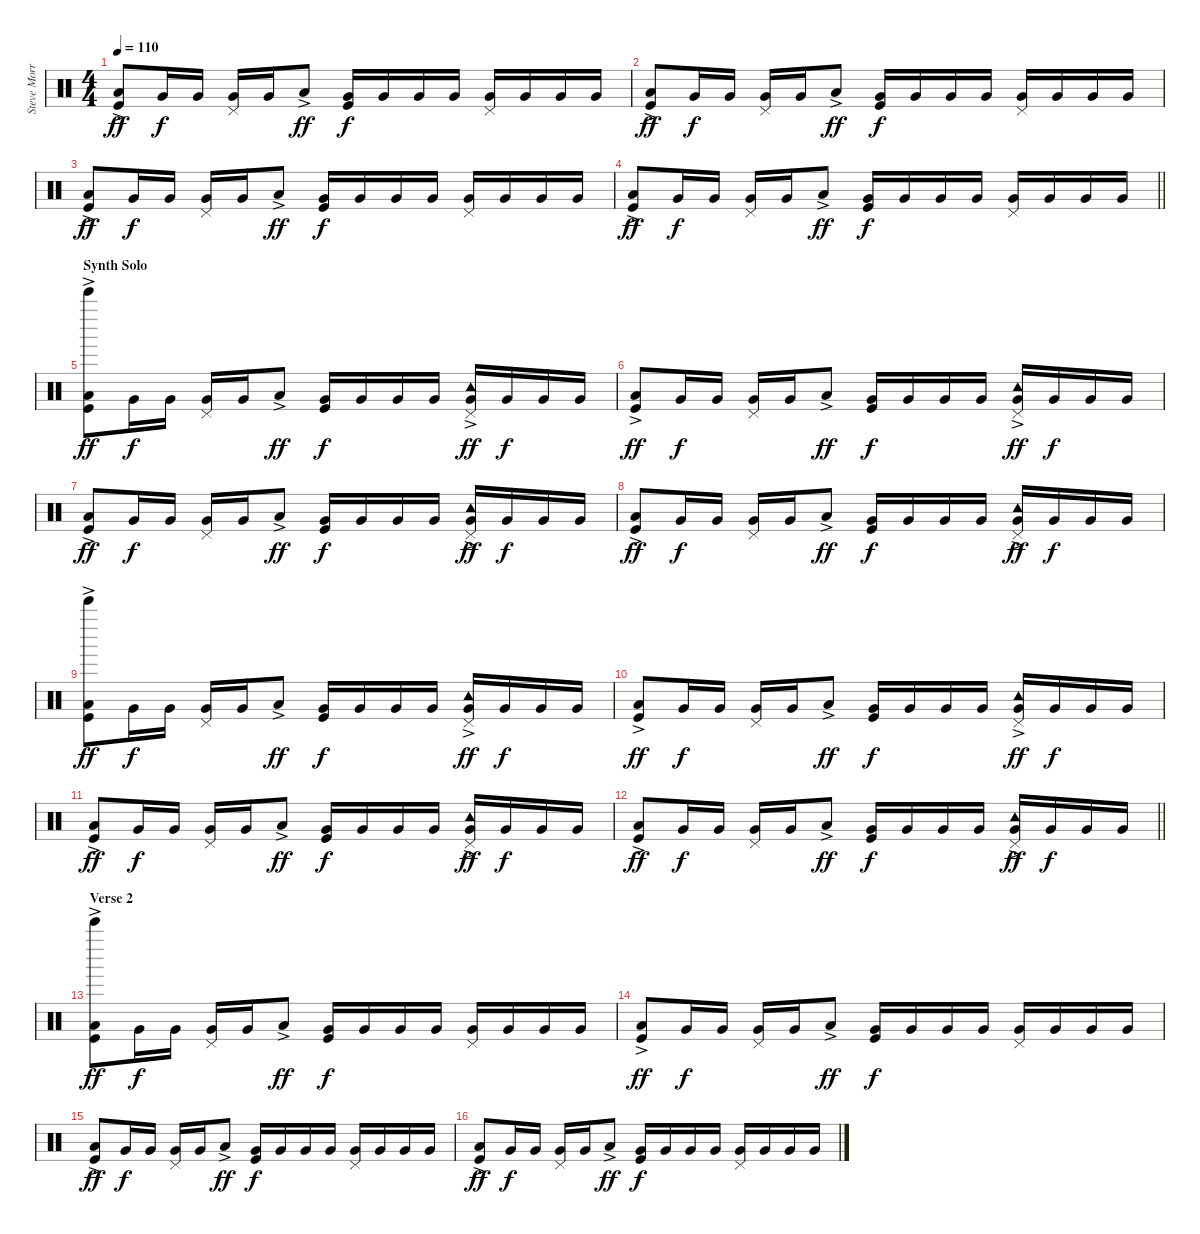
\track ("Steve Morris Drums" "Steve Morr") {instrument percussion}
\staff {score}
\articulation defaults
\ts (4 4)
\tempo 110
\clef neutral
\ks c
("Low Tom (hit)"{ac} "Kick (hit)").8{dy ff} "Very Low Tom (hit)".16{dy f} "Very Low Tom (hit)".16 ("Pedal Hi-Hat (hit)" "Very Low Tom (hit)").16 "Very Low Tom (hit)".16 "Low Tom (hit)"{ac}.8{dy ff} ("Very Low Tom (hit)" "Kick (hit)").16{dy f} "Very Low Tom (hit)".16 "Very Low Tom (hit)".16 "Very Low Tom (hit)".16 ("Pedal Hi-Hat (hit)" "Very Low Tom (hit)").16 "Very Low Tom (hit)".16 "Very Low Tom (hit)".16 "Very Low Tom (hit)".16 |
("Low Tom (hit)"{ac} "Kick (hit)").8{dy ff} "Very Low Tom (hit)".16{dy f} "Very Low Tom (hit)".16 ("Pedal Hi-Hat (hit)" "Very Low Tom (hit)").16 "Very Low Tom (hit)".16 "Low Tom (hit)"{ac}.8{dy ff} ("Very Low Tom (hit)" "Kick (hit)").16{dy f} "Very Low Tom (hit)".16 "Very Low Tom (hit)".16 "Very Low Tom (hit)".16 ("Pedal Hi-Hat (hit)" "Very Low Tom (hit)").16 "Very Low Tom (hit)".16 "Very Low Tom (hit)".16 "Very Low Tom (hit)".16 |
("Low Tom (hit)"{ac} "Kick (hit)").8{dy ff} "Very Low Tom (hit)".16{dy f} "Very Low Tom (hit)".16 ("Pedal Hi-Hat (hit)" "Very Low Tom (hit)").16 "Very Low Tom (hit)".16 "Low Tom (hit)"{ac}.8{dy ff} ("Very Low Tom (hit)" "Kick (hit)").16{dy f} "Very Low Tom (hit)".16 "Very Low Tom (hit)".16 "Very Low Tom (hit)".16 ("Pedal Hi-Hat (hit)" "Very Low Tom (hit)").16 "Very Low Tom (hit)".16 "Very Low Tom (hit)".16 "Very Low Tom (hit)".16 |
\barLineRight lightlight
("Low Tom (hit)"{ac} "Kick (hit)").8{dy ff} "Very Low Tom (hit)".16{dy f} "Very Low Tom (hit)".16 ("Pedal Hi-Hat (hit)" "Very Low Tom (hit)").16 "Very Low Tom (hit)".16 "Low Tom (hit)"{ac}.8{dy ff} ("Very Low Tom (hit)" "Kick (hit)").16{dy f} "Very Low Tom (hit)".16 "Very Low Tom (hit)".16 "Very Low Tom (hit)".16 ("Pedal Hi-Hat (hit)" "Very Low Tom (hit)").16 "Very Low Tom (hit)".16 "Very Low Tom (hit)".16 "Very Low Tom (hit)".16 |
\section ("" "Synth Solo")
("Bell Tree (hit)" "Low Tom (hit)"{ac} "Kick (hit)").8{dy ff} "Very Low Tom (hit)".16{dy f} "Very Low Tom (hit)".16 ("Pedal Hi-Hat (hit)" "Very Low Tom (hit)").16 "Very Low Tom (hit)".16 "Low Tom (hit)"{ac}.8{dy ff} ("Very Low Tom (hit)" "Kick (hit)").16{dy f} "Very Low Tom (hit)".16 "Very Low Tom (hit)".16 "Very Low Tom (hit)".16 ("Pedal Hi-Hat (hit)" "Tambourine (hit)"{ac} "Very Low Tom (hit)").16{dy ff} "Very Low Tom (hit)".16{dy f} "Very Low Tom (hit)".16 "Very Low Tom (hit)".16 |
("Low Tom (hit)"{ac} "Kick (hit)").8{dy ff} "Very Low Tom (hit)".16{dy f} "Very Low Tom (hit)".16 ("Pedal Hi-Hat (hit)" "Very Low Tom (hit)").16 "Very Low Tom (hit)".16 "Low Tom (hit)"{ac}.8{dy ff} ("Very Low Tom (hit)" "Kick (hit)").16{dy f} "Very Low Tom (hit)".16 "Very Low Tom (hit)".16 "Very Low Tom (hit)".16 ("Pedal Hi-Hat (hit)" "Tambourine (hit)"{ac} "Very Low Tom (hit)").16{dy ff} "Very Low Tom (hit)".16{dy f} "Very Low Tom (hit)".16 "Very Low Tom (hit)".16 |
("Low Tom (hit)"{ac} "Kick (hit)").8{dy ff} "Very Low Tom (hit)".16{dy f} "Very Low Tom (hit)".16 ("Pedal Hi-Hat (hit)" "Very Low Tom (hit)").16 "Very Low Tom (hit)".16 "Low Tom (hit)"{ac}.8{dy ff} ("Very Low Tom (hit)" "Kick (hit)").16{dy f} "Very Low Tom (hit)".16 "Very Low Tom (hit)".16 "Very Low Tom (hit)".16 ("Pedal Hi-Hat (hit)" "Tambourine (hit)"{ac} "Very Low Tom (hit)").16{dy ff} "Very Low Tom (hit)".16{dy f} "Very Low Tom (hit)".16 "Very Low Tom (hit)".16 |
("Low Tom (hit)"{ac} "Kick (hit)").8{dy ff} "Very Low Tom (hit)".16{dy f} "Very Low Tom (hit)".16 ("Pedal Hi-Hat (hit)" "Very Low Tom (hit)").16 "Very Low Tom (hit)".16 "Low Tom (hit)"{ac}.8{dy ff} ("Very Low Tom (hit)" "Kick (hit)").16{dy f} "Very Low Tom (hit)".16 "Very Low Tom (hit)".16 "Very Low Tom (hit)".16 ("Pedal Hi-Hat (hit)" "Tambourine (hit)"{ac} "Very Low Tom (hit)").16{dy ff} "Very Low Tom (hit)".16{dy f} "Very Low Tom (hit)".16 "Very Low Tom (hit)".16 |
("Bell Tree (hit)" "Low Tom (hit)"{ac} "Kick (hit)").8{dy ff} "Very Low Tom (hit)".16{dy f} "Very Low Tom (hit)".16 ("Pedal Hi-Hat (hit)" "Very Low Tom (hit)").16 "Very Low Tom (hit)".16 "Low Tom (hit)"{ac}.8{dy ff} ("Very Low Tom (hit)" "Kick (hit)").16{dy f} "Very Low Tom (hit)".16 "Very Low Tom (hit)".16 "Very Low Tom (hit)".16 ("Pedal Hi-Hat (hit)" "Tambourine (hit)"{ac} "Very Low Tom (hit)").16{dy ff} "Very Low Tom (hit)".16{dy f} "Very Low Tom (hit)".16 "Very Low Tom (hit)".16 |
("Low Tom (hit)"{ac} "Kick (hit)").8{dy ff} "Very Low Tom (hit)".16{dy f} "Very Low Tom (hit)".16 ("Pedal Hi-Hat (hit)" "Very Low Tom (hit)").16 "Very Low Tom (hit)".16 "Low Tom (hit)"{ac}.8{dy ff} ("Very Low Tom (hit)" "Kick (hit)").16{dy f} "Very Low Tom (hit)".16 "Very Low Tom (hit)".16 "Very Low Tom (hit)".16 ("Pedal Hi-Hat (hit)" "Tambourine (hit)"{ac} "Very Low Tom (hit)").16{dy ff} "Very Low Tom (hit)".16{dy f} "Very Low Tom (hit)".16 "Very Low Tom (hit)".16 |
("Low Tom (hit)"{ac} "Kick (hit)").8{dy ff} "Very Low Tom (hit)".16{dy f} "Very Low Tom (hit)".16 ("Pedal Hi-Hat (hit)" "Very Low Tom (hit)").16 "Very Low Tom (hit)".16 "Low Tom (hit)"{ac}.8{dy ff} ("Very Low Tom (hit)" "Kick (hit)").16{dy f} "Very Low Tom (hit)".16 "Very Low Tom (hit)".16 "Very Low Tom (hit)".16 ("Pedal Hi-Hat (hit)" "Tambourine (hit)"{ac} "Very Low Tom (hit)").16{dy ff} "Very Low Tom (hit)".16{dy f} "Very Low Tom (hit)".16 "Very Low Tom (hit)".16 |
\barLineRight lightlight
("Low Tom (hit)"{ac} "Kick (hit)").8{dy ff} "Very Low Tom (hit)".16{dy f} "Very Low Tom (hit)".16 ("Pedal Hi-Hat (hit)" "Very Low Tom (hit)").16 "Very Low Tom (hit)".16 "Low Tom (hit)"{ac}.8{dy ff} ("Very Low Tom (hit)" "Kick (hit)").16{dy f} "Very Low Tom (hit)".16 "Very Low Tom (hit)".16 "Very Low Tom (hit)".16 ("Pedal Hi-Hat (hit)" "Tambourine (hit)"{ac} "Very Low Tom (hit)").16{dy ff} "Very Low Tom (hit)".16{dy f} "Very Low Tom (hit)".16 "Very Low Tom (hit)".16 |
\section ("" "Verse 2")
("Bell Tree (hit)" "Low Tom (hit)"{ac} "Kick (hit)").8{dy ff} "Very Low Tom (hit)".16{dy f} "Very Low Tom (hit)".16 ("Pedal Hi-Hat (hit)" "Very Low Tom (hit)").16 "Very Low Tom (hit)".16 "Low Tom (hit)"{ac}.8{dy ff} ("Very Low Tom (hit)" "Kick (hit)").16{dy f} "Very Low Tom (hit)".16 "Very Low Tom (hit)".16 "Very Low Tom (hit)".16 ("Pedal Hi-Hat (hit)" "Very Low Tom (hit)").16 "Very Low Tom (hit)".16 "Very Low Tom (hit)".16 "Very Low Tom (hit)".16 |
("Low Tom (hit)"{ac} "Kick (hit)").8{dy ff} "Very Low Tom (hit)".16{dy f} "Very Low Tom (hit)".16 ("Pedal Hi-Hat (hit)" "Very Low Tom (hit)").16 "Very Low Tom (hit)".16 "Low Tom (hit)"{ac}.8{dy ff} ("Very Low Tom (hit)" "Kick (hit)").16{dy f} "Very Low Tom (hit)".16 "Very Low Tom (hit)".16 "Very Low Tom (hit)".16 ("Pedal Hi-Hat (hit)" "Very Low Tom (hit)").16 "Very Low Tom (hit)".16 "Very Low Tom (hit)".16 "Very Low Tom (hit)".16 |
("Low Tom (hit)"{ac} "Kick (hit)").8{dy ff} "Very Low Tom (hit)".16{dy f} "Very Low Tom (hit)".16 ("Pedal Hi-Hat (hit)" "Very Low Tom (hit)").16 "Very Low Tom (hit)".16 "Low Tom (hit)"{ac}.8{dy ff} ("Very Low Tom (hit)" "Kick (hit)").16{dy f} "Very Low Tom (hit)".16 "Very Low Tom (hit)".16 "Very Low Tom (hit)".16 ("Pedal Hi-Hat (hit)" "Very Low Tom (hit)").16 "Very Low Tom (hit)".16 "Very Low Tom (hit)".16 "Very Low Tom (hit)".16 |
("Low Tom (hit)"{ac} "Kick (hit)").8{dy ff} "Very Low Tom (hit)".16{dy f} "Very Low Tom (hit)".16 ("Pedal Hi-Hat (hit)" "Very Low Tom (hit)").16 "Very Low Tom (hit)".16 "Low Tom (hit)"{ac}.8{dy ff} ("Very Low Tom (hit)" "Kick (hit)").16{dy f} "Very Low Tom (hit)".16 "Very Low Tom (hit)".16 "Very Low Tom (hit)".16 ("Pedal Hi-Hat (hit)" "Very Low Tom (hit)").16 "Very Low Tom (hit)".16 "Very Low Tom (hit)".16 "Very Low Tom (hit)".16
